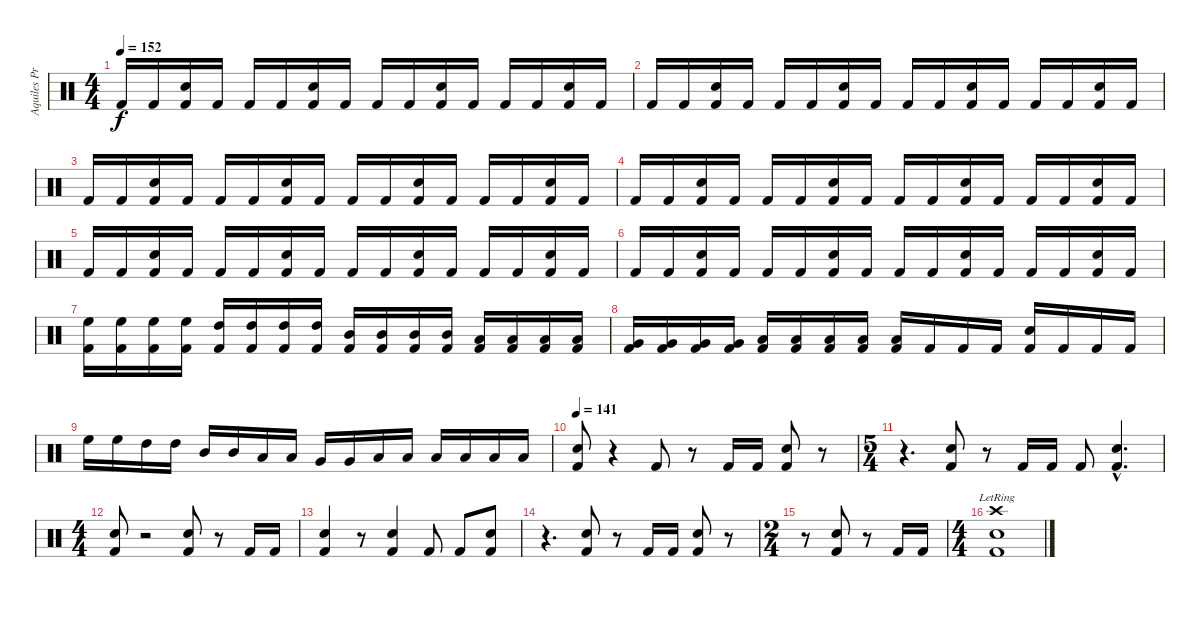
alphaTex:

\track ("Aquiles Priester" "Aquiles Pr") {instrument percussion}
\staff {score}
\articulation defaults
\ts (4 4)
\tempo 152
\clef neutral
\ks c "Kick (hit) 2".16{dy f} "Kick (hit) 2".16
("Electric Snare (hit)" "Kick (hit) 2").16 "Kick (hit) 2".16 "Kick (hit) 2".16 "Kick (hit) 2".16 ("Electric Snare (hit)" "Kick (hit) 2").16 "Kick (hit) 2".16 "Kick (hit) 2".16 "Kick (hit) 2".16 ("Electric Snare (hit)" "Kick (hit) 2").16 "Kick (hit) 2".16 "Kick (hit) 2".16 "Kick (hit) 2".16 ("Electric Snare (hit)" "Kick (hit) 2").16 "Kick (hit) 2".16 |
"Kick (hit) 2".16 "Kick (hit) 2".16 ("Electric Snare (hit)" "Kick (hit) 2").16 "Kick (hit) 2".16 "Kick (hit) 2".16 "Kick (hit) 2".16 ("Electric Snare (hit)" "Kick (hit) 2").16 "Kick (hit) 2".16 "Kick (hit) 2".16 "Kick (hit) 2".16 ("Electric Snare (hit)" "Kick (hit) 2").16 "Kick (hit) 2".16 "Kick (hit) 2".16 "Kick (hit) 2".16 ("Electric Snare (hit)" "Kick (hit) 2").16 "Kick (hit) 2".16 |
"Kick (hit) 2".16 "Kick (hit) 2".16 ("Electric Snare (hit)" "Kick (hit) 2").16 "Kick (hit) 2".16 "Kick (hit) 2".16 "Kick (hit) 2".16 ("Electric Snare (hit)" "Kick (hit) 2").16 "Kick (hit) 2".16 "Kick (hit) 2".16 "Kick (hit) 2".16 ("Electric Snare (hit)" "Kick (hit) 2").16 "Kick (hit) 2".16 "Kick (hit) 2".16 "Kick (hit) 2".16 ("Electric Snare (hit)" "Kick (hit) 2").16 "Kick (hit) 2".16 |
"Kick (hit) 2".16 "Kick (hit) 2".16 ("Electric Snare (hit)" "Kick (hit) 2").16 "Kick (hit) 2".16 "Kick (hit) 2".16 "Kick (hit) 2".16 ("Electric Snare (hit)" "Kick (hit) 2").16 "Kick (hit) 2".16 "Kick (hit) 2".16 "Kick (hit) 2".16 ("Electric Snare (hit)" "Kick (hit) 2").16 "Kick (hit) 2".16 "Kick (hit) 2".16 "Kick (hit) 2".16 ("Electric Snare (hit)" "Kick (hit) 2").16 "Kick (hit) 2".16 |
"Kick (hit) 2".16 "Kick (hit) 2".16 ("Electric Snare (hit)" "Kick (hit) 2").16 "Kick (hit) 2".16 "Kick (hit) 2".16 "Kick (hit) 2".16 ("Electric Snare (hit)" "Kick (hit) 2").16 "Kick (hit) 2".16 "Kick (hit) 2".16 "Kick (hit) 2".16 ("Electric Snare (hit)" "Kick (hit) 2").16 "Kick (hit) 2".16 "Kick (hit) 2".16 "Kick (hit) 2".16 ("Electric Snare (hit)" "Kick (hit) 2").16 "Kick (hit) 2".16 |
"Kick (hit) 2".16 "Kick (hit) 2".16 ("Electric Snare (hit)" "Kick (hit) 2").16 "Kick (hit) 2".16 "Kick (hit) 2".16 "Kick (hit) 2".16 ("Electric Snare (hit)" "Kick (hit) 2").16 "Kick (hit) 2".16 "Kick (hit) 2".16 "Kick (hit) 2".16 ("Electric Snare (hit)" "Kick (hit) 2").16 "Kick (hit) 2".16 "Kick (hit) 2".16 "Kick (hit) 2".16 ("Electric Snare (hit)" "Kick (hit) 2").16 "Kick (hit) 2".16 |
("High Floor Tom (hit)" "Kick (hit) 2").16 ("High Floor Tom (hit)" "Kick (hit) 2").16 ("High Floor Tom (hit)" "Kick (hit) 2").16 ("High Floor Tom (hit)" "Kick (hit) 2").16 ("High Tom (hit)" "Kick (hit) 2").16 ("High Tom (hit)" "Kick (hit) 2").16 ("High Tom (hit)" "Kick (hit) 2").16 ("High Tom (hit)" "Kick (hit) 2").16 ("Mid Tom (hit)" "Kick (hit) 2").16 ("Mid Tom (hit)" "Kick (hit) 2").16 ("Mid Tom (hit)" "Kick (hit) 2").16 ("Mid Tom (hit)" "Kick (hit) 2").16 ("Low Tom (hit)" "Kick (hit) 2").16 ("Low Tom (hit)" "Kick (hit) 2").16 ("Low Tom (hit)" "Kick (hit) 2").16 ("Low Tom (hit)" "Kick (hit) 2").16 |
("Very Low Tom (hit)" "Kick (hit) 2").16 ("Very Low Tom (hit)" "Kick (hit) 2").16 ("Very Low Tom (hit)" "Kick (hit) 2").16 ("Very Low Tom (hit)" "Kick (hit) 2").16 ("Low Floor Tom (hit)" "Kick (hit) 2").16 ("Low Floor Tom (hit)" "Kick (hit) 2").16 ("Low Floor Tom (hit)" "Kick (hit) 2").16 ("Low Floor Tom (hit)" "Kick (hit) 2").16 ("Low Floor Tom (hit)" "Kick (hit) 2").16 "Kick (hit) 2".16 "Kick (hit) 2".16 "Kick (hit) 2".16 ("Electric Snare (hit)" "Kick (hit) 2").16 "Kick (hit) 2".16 "Kick (hit) 2".16 "Kick (hit) 2".16 |
"High Floor Tom (hit)".16 "High Floor Tom (hit)".16 "High Tom (hit)".16 "High Tom (hit)".16 "Mid Tom (hit)".16 "Mid Tom (hit)".16 "Low Tom (hit)".16 "Low Tom (hit)".16 "Very Low Tom (hit)".16 "Very Low Tom (hit)".16 "Low Floor Tom (hit)".16 "Low Floor Tom (hit)".16 "Low Floor Tom (hit)".16 "Low Floor Tom (hit)".16 "Low Floor Tom (hit)".16 "Low Floor Tom (hit)".16 |
\tempo 141
("Electric Snare (hit)" "Kick (hit) 2").8 r.4 "Kick (hit) 2".8 r.8 "Kick (hit) 2".16 "Kick (hit) 2".16 ("Electric Snare (hit)" "Kick (hit) 2").8 r.8 |
\ts (5 4)
r.4{d} ("Electric Snare (hit)" "Kick (hit) 2").8 r.8 "Kick (hit) 2".16 "Kick (hit) 2".16 "Kick (hit) 2".8 ("Electric Snare (hit)"{hac} "Kick (hit) 2"{hac}).4{d} |
\ts (4 4)
("Electric Snare (hit)" "Kick (hit) 2").8 r.2 ("Electric Snare (hit)" "Kick (hit) 2").8 r.8 "Kick (hit) 2".16 "Kick (hit) 2".16 |
("Electric Snare (hit)" "Kick (hit) 2").4 r.8 ("Electric Snare (hit)" "Kick (hit) 2").4 "Kick (hit) 2".8 "Kick (hit) 2".8 ("Electric Snare (hit)" "Kick (hit) 2").8 |
r.4{d} ("Electric Snare (hit)" "Kick (hit) 2").8 r.8 "Kick (hit) 2".16 "Kick (hit) 2".16 ("Electric Snare (hit)" "Kick (hit) 2").8 r.8 |
\ts (2 4)
r.8 ("Electric Snare (hit)" "Kick (hit) 2").8 r.8 "Kick (hit) 2".16 "Kick (hit) 2".16 |
\ts (4 4)
("Crash high (hit)" "Electric Snare (hit)"{lr} "Kick (hit) 2").1
